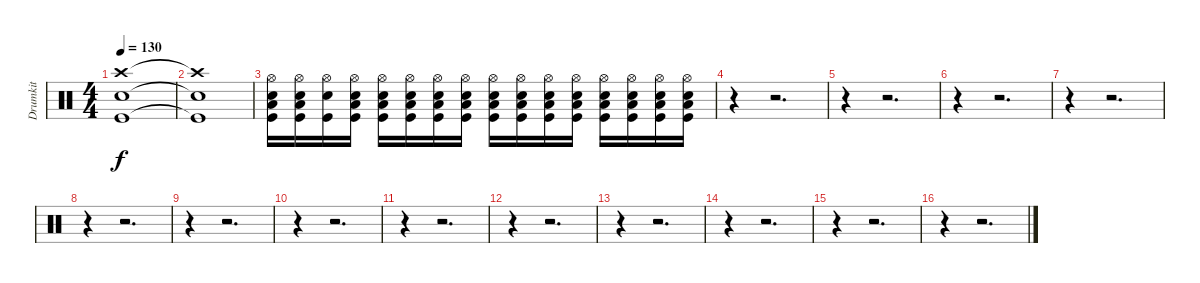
\track ("Drumkit" "Drumkit") {instrument percussion}
\staff {score}
\articulation defaults
\ts (4 4)
\tempo 130
\clef neutral
\ks c
("Crash high (hit)" "Snare (hit) 2" "Kick (hit)").1{dy f} |
("Crash high (hit)"{t} "Snare (hit) 2"{t} "Kick (hit)"{t}).1 |
("Low Floor Tom (hit)" "Snare (hit) 2" "Kick (hit)" "Hi-Hat (open)").16 ("Low Floor Tom (hit)" "Snare (hit) 2" "Kick (hit)" "Hi-Hat (open)").16 ("Hi-Hat (open)" "Snare (hit) 2" "Kick (hit)").16 ("Low Floor Tom (hit)" "Snare (hit) 2" "Kick (hit)" "Hi-Hat (open)").16 ("Low Floor Tom (hit)" "Snare (hit) 2" "Kick (hit)" "Hi-Hat (open)").16 ("Low Floor Tom (hit)" "Snare (hit) 2" "Kick (hit)" "Hi-Hat (open)").16 ("Low Floor Tom (hit)" "Snare (hit) 2" "Kick (hit)" "Hi-Hat (open)").16 ("Low Floor Tom (hit)" "Snare (hit) 2" "Kick (hit)" "Hi-Hat (open)").16 ("Low Floor Tom (hit)" "Snare (hit) 2" "Kick (hit)" "Hi-Hat (open)").16 ("Low Floor Tom (hit)" "Snare (hit) 2" "Kick (hit)" "Hi-Hat (open)").16 ("Low Floor Tom (hit)" "Snare (hit) 2" "Kick (hit)" "Hi-Hat (open)").16 ("Low Floor Tom (hit)" "Snare (hit) 2" "Kick (hit)" "Hi-Hat (open)").16 ("Low Floor Tom (hit)" "Snare (hit) 2" "Kick (hit)" "Hi-Hat (open)").16 ("Low Floor Tom (hit)" "Snare (hit) 2" "Kick (hit)" "Hi-Hat (open)").16 ("Low Floor Tom (hit)" "Snare (hit) 2" "Kick (hit)" "Hi-Hat (open)").16 ("Low Floor Tom (hit)" "Snare (hit) 2" "Kick (hit)" "Hi-Hat (open)").16 |
r.4 r.2{d} |
r.4 r.2{d} |
r.4 r.2{d} |
r.4 r.2{d} |
r.4 r.2{d} |
r.4 r.2{d} |
r.4 r.2{d} |
r.4 r.2{d} |
r.4 r.2{d} |
r.4 r.2{d} |
r.4 r.2{d} |
r.4 r.2{d} |
r.4 r.2{d}
